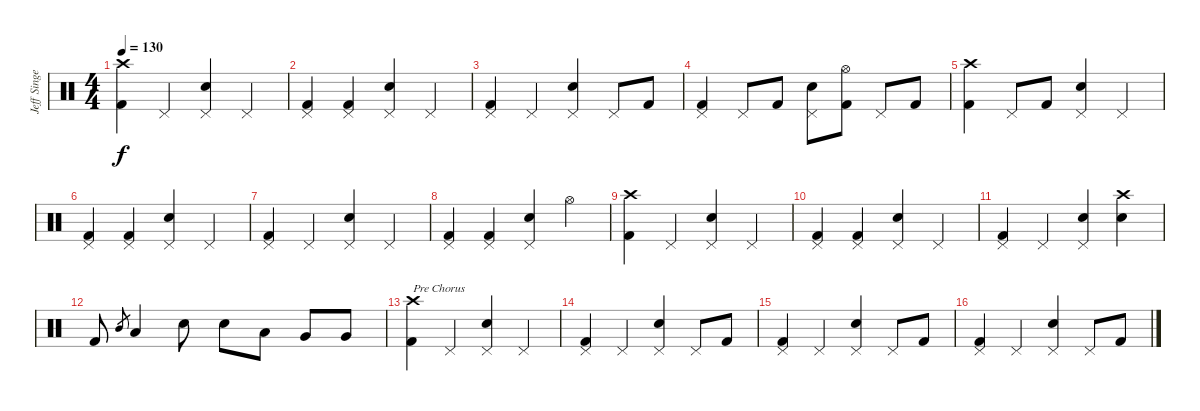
\track ("Jeff Singer" "Jeff Singe") {instrument percussion}
\staff {score}
\articulation defaults
\ts (4 4)
\tempo 130
\clef neutral
\ks c
("Crash high (hit)" "Kick (hit) 2").4{dy f} "Pedal Hi-Hat (hit)".4 ("Pedal Hi-Hat (hit)" "Snare (hit) 2").4 "Pedal Hi-Hat (hit)".4 |
("Pedal Hi-Hat (hit)" "Kick (hit) 2").4 ("Pedal Hi-Hat (hit)" "Kick (hit) 2").4 ("Pedal Hi-Hat (hit)" "Snare (hit) 2").4 "Pedal Hi-Hat (hit)".4 |
("Pedal Hi-Hat (hit)" "Kick (hit) 2").4 "Pedal Hi-Hat (hit)".4 ("Pedal Hi-Hat (hit)" "Snare (hit) 2").4 "Pedal Hi-Hat (hit)".8 "Kick (hit) 2".8 |
("Pedal Hi-Hat (hit)" "Kick (hit) 2").4 "Pedal Hi-Hat (hit)".8 "Kick (hit) 2".8 ("Pedal Hi-Hat (hit)" "Snare (hit) 2").8 ("Hi-Hat (open)" "Kick (hit) 2").8 "Pedal Hi-Hat (hit)".8 "Kick (hit) 2".8 |
("Crash high (hit)" "Kick (hit) 2").4 "Pedal Hi-Hat (hit)".8 "Kick (hit) 2".8 ("Pedal Hi-Hat (hit)" "Snare (hit) 2").4 "Pedal Hi-Hat (hit)".4 |
("Pedal Hi-Hat (hit)" "Kick (hit) 2").4 ("Pedal Hi-Hat (hit)" "Kick (hit) 2").4 ("Pedal Hi-Hat (hit)" "Snare (hit) 2").4 "Pedal Hi-Hat (hit)".4 |
("Pedal Hi-Hat (hit)" "Kick (hit) 2").4 "Pedal Hi-Hat (hit)".4 ("Pedal Hi-Hat (hit)" "Snare (hit) 2").4 "Pedal Hi-Hat (hit)".4 |
("Pedal Hi-Hat (hit)" "Kick (hit) 2").4 ("Pedal Hi-Hat (hit)" "Kick (hit) 2").4 ("Pedal Hi-Hat (hit)" "Snare (hit) 2").4 "Hi-Hat (open)".4 |
("Crash high (hit)" "Kick (hit) 2").4 "Pedal Hi-Hat (hit)".4 ("Pedal Hi-Hat (hit)" "Snare (hit) 2").4 "Pedal Hi-Hat (hit)".4 |
("Pedal Hi-Hat (hit)" "Kick (hit) 2").4 ("Pedal Hi-Hat (hit)" "Kick (hit) 2").4 ("Pedal Hi-Hat (hit)" "Snare (hit) 2").4 "Pedal Hi-Hat (hit)".4 |
("Pedal Hi-Hat (hit)" "Kick (hit) 2").4 "Pedal Hi-Hat (hit)".4 ("Pedal Hi-Hat (hit)" "Snare (hit) 2").4 ("Crash high (hit)" "Snare (hit) 2").4 |
"Kick (hit) 2".8 "Mid Tom (hit)".8{gr} "Low Tom (hit)".4 "Snare (hit) 2".8 "Snare (hit) 2".8 "Low Tom (hit)".8 "Very Low Tom (hit)".8 "Very Low Tom (hit)".8 |
("Crash high (hit)" "Kick (hit) 2").4{txt "Pre Chorus"} "Pedal Hi-Hat (hit)".4 ("Pedal Hi-Hat (hit)" "Snare (hit) 2").4 "Pedal Hi-Hat (hit)".4 |
("Pedal Hi-Hat (hit)" "Kick (hit) 2").4 "Pedal Hi-Hat (hit)".4 ("Pedal Hi-Hat (hit)" "Snare (hit) 2").4 "Pedal Hi-Hat (hit)".8 "Kick (hit) 2".8 |
("Pedal Hi-Hat (hit)" "Kick (hit) 2").4 "Pedal Hi-Hat (hit)".4 ("Pedal Hi-Hat (hit)" "Snare (hit) 2").4 "Pedal Hi-Hat (hit)".8 "Kick (hit) 2".8 |
("Pedal Hi-Hat (hit)" "Kick (hit) 2").4 "Pedal Hi-Hat (hit)".4 ("Pedal Hi-Hat (hit)" "Snare (hit) 2").4 "Pedal Hi-Hat (hit)".8 "Kick (hit) 2".8
